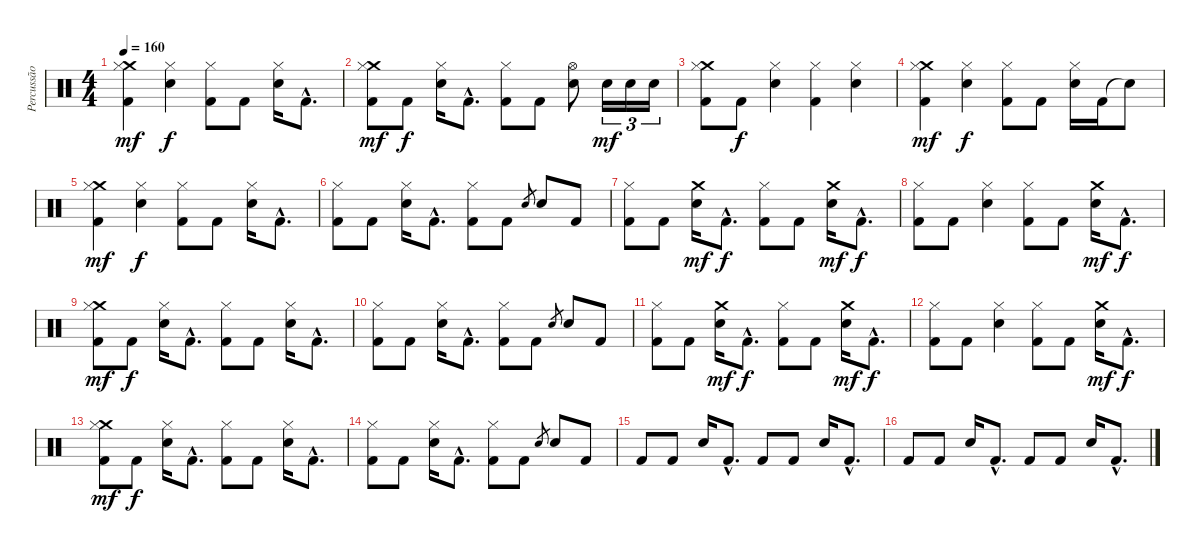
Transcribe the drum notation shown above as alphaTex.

\track ("Percussão" "Percussão") {instrument percussion}
\staff {score}
\articulation defaults
\ts (4 4)
\tempo 160
\clef neutral
\ks c
("Crash medium (hit)" "Hi-Hat (closed)" "Kick (hit) 2").4{dy mf} ("Hi-Hat (closed)" "Snare (hit) 2").4{dy f} ("Hi-Hat (closed)" "Kick (hit) 2").8 "Kick (hit) 2".8 ("Hi-Hat (closed)" "Snare (hit) 2").16 "Kick (hit) 2"{hac}.8{d} |
("Crash medium (hit)" "Hi-Hat (closed)" "Kick (hit) 2").8{dy mf} "Kick (hit) 2".8{dy f} ("Hi-Hat (closed)" "Snare (hit) 2").16 "Kick (hit) 2"{hac}.8{d} ("Hi-Hat (closed)" "Kick (hit) 2").8 "Kick (hit) 2".8 ("Hi-Hat (open)" "Snare (hit) 2").8 "Snare (hit) 2".16{tu (3 2) dy mf} "Snare (hit) 2".16{tu (3 2)} "Snare (hit) 2".16{tu (3 2)} |
("Crash medium (hit)" "Hi-Hat (closed)" "Kick (hit) 2").8 "Kick (hit) 2".8{dy f} ("Hi-Hat (closed)" "Snare (hit) 2").4 ("Hi-Hat (closed)" "Kick (hit) 2").4 ("Hi-Hat (closed)" "Snare (hit) 2").4 |
("Crash medium (hit)" "Hi-Hat (closed)" "Kick (hit) 2").4{dy mf} ("Hi-Hat (closed)" "Snare (hit) 2").4{dy f} ("Hi-Hat (closed)" "Kick (hit) 2").8 "Kick (hit) 2".8 ("Hi-Hat (closed)" "Snare (hit) 2").16 "Kick (hit) 2".16 "Snare (hit)"{t}.8 |
("Crash medium (hit)" "Hi-Hat (closed)" "Kick (hit) 2").4{dy mf} ("Hi-Hat (closed)" "Snare (hit) 2").4{dy f} ("Hi-Hat (closed)" "Kick (hit) 2").8 "Kick (hit) 2".8 ("Hi-Hat (closed)" "Snare (hit) 2").16 "Kick (hit) 2"{hac}.8{d} |
("Hi-Hat (closed)" "Kick (hit) 2").8 "Kick (hit) 2".8 ("Hi-Hat (closed)" "Snare (hit) 2").16 "Kick (hit) 2"{hac}.8{d} ("Hi-Hat (closed)" "Kick (hit) 2").8 "Kick (hit) 2".8 "Snare (hit) 2".8{gr} "Snare (hit) 2".8 "Kick (hit) 2".8 |
("Hi-Hat (closed)" "Kick (hit) 2").8 "Kick (hit) 2".8 ("Crash medium (hit)" "Snare (hit) 2").16{dy mf} "Kick (hit) 2"{hac}.8{d dy f} ("Hi-Hat (closed)" "Kick (hit) 2").8 "Kick (hit) 2".8 ("Crash medium (hit)" "Snare (hit) 2").16{dy mf} "Kick (hit) 2"{hac}.8{d dy f} |
("Hi-Hat (closed)" "Kick (hit) 2").8 "Kick (hit) 2".8 ("Hi-Hat (closed)" "Snare (hit) 2").4 ("Hi-Hat (closed)" "Kick (hit) 2").8 "Kick (hit) 2".8 ("Crash medium (hit)" "Snare (hit) 2").16{dy mf} "Kick (hit) 2"{hac}.8{d dy f} |
("Crash medium (hit)" "Hi-Hat (closed)" "Kick (hit) 2").8{dy mf} "Kick (hit) 2".8{dy f} ("Hi-Hat (closed)" "Snare (hit) 2").16 "Kick (hit) 2"{hac}.8{d} ("Hi-Hat (closed)" "Kick (hit) 2").8 "Kick (hit) 2".8 ("Hi-Hat (closed)" "Snare (hit) 2").16 "Kick (hit) 2"{hac}.8{d} |
("Hi-Hat (closed)" "Kick (hit) 2").8 "Kick (hit) 2".8 ("Hi-Hat (closed)" "Snare (hit) 2").16 "Kick (hit) 2"{hac}.8{d} ("Hi-Hat (closed)" "Kick (hit) 2").8 "Kick (hit) 2".8 "Snare (hit) 2".8{gr} "Snare (hit) 2".8 "Kick (hit) 2".8 |
("Hi-Hat (closed)" "Kick (hit) 2").8 "Kick (hit) 2".8 ("Crash medium (hit)" "Snare (hit) 2").16{dy mf} "Kick (hit) 2"{hac}.8{d dy f} ("Hi-Hat (closed)" "Kick (hit) 2").8 "Kick (hit) 2".8 ("Crash medium (hit)" "Snare (hit) 2").16{dy mf} "Kick (hit) 2"{hac}.8{d dy f} |
("Hi-Hat (closed)" "Kick (hit) 2").8 "Kick (hit) 2".8 ("Hi-Hat (closed)" "Snare (hit) 2").4 ("Hi-Hat (closed)" "Kick (hit) 2").8 "Kick (hit) 2".8 ("Crash medium (hit)" "Snare (hit) 2").16{dy mf} "Kick (hit) 2"{hac}.8{d dy f} |
("Crash medium (hit)" "Hi-Hat (closed)" "Kick (hit) 2").8{dy mf} "Kick (hit) 2".8{dy f} ("Hi-Hat (closed)" "Snare (hit) 2").16 "Kick (hit) 2"{hac}.8{d} ("Hi-Hat (closed)" "Kick (hit) 2").8 "Kick (hit) 2".8 ("Hi-Hat (closed)" "Snare (hit) 2").16 "Kick (hit) 2"{hac}.8{d} |
("Hi-Hat (closed)" "Kick (hit) 2").8 "Kick (hit) 2".8 ("Hi-Hat (closed)" "Snare (hit) 2").16 "Kick (hit) 2"{hac}.8{d} ("Hi-Hat (closed)" "Kick (hit) 2").8 "Kick (hit) 2".8 "Snare (hit) 2".8{gr} "Snare (hit) 2".8 "Kick (hit) 2".8 |
"Kick (hit) 2".8 "Kick (hit) 2".8 "Snare (hit) 2".16 "Kick (hit) 2"{hac}.8{d} "Kick (hit) 2".8 "Kick (hit) 2".8 "Snare (hit) 2".16 "Kick (hit) 2"{hac}.8{d} |
"Kick (hit) 2".8 "Kick (hit) 2".8 "Snare (hit) 2".16 "Kick (hit) 2"{hac}.8{d} "Kick (hit) 2".8 "Kick (hit) 2".8 "Snare (hit) 2".16 "Kick (hit) 2"{hac}.8{d}
